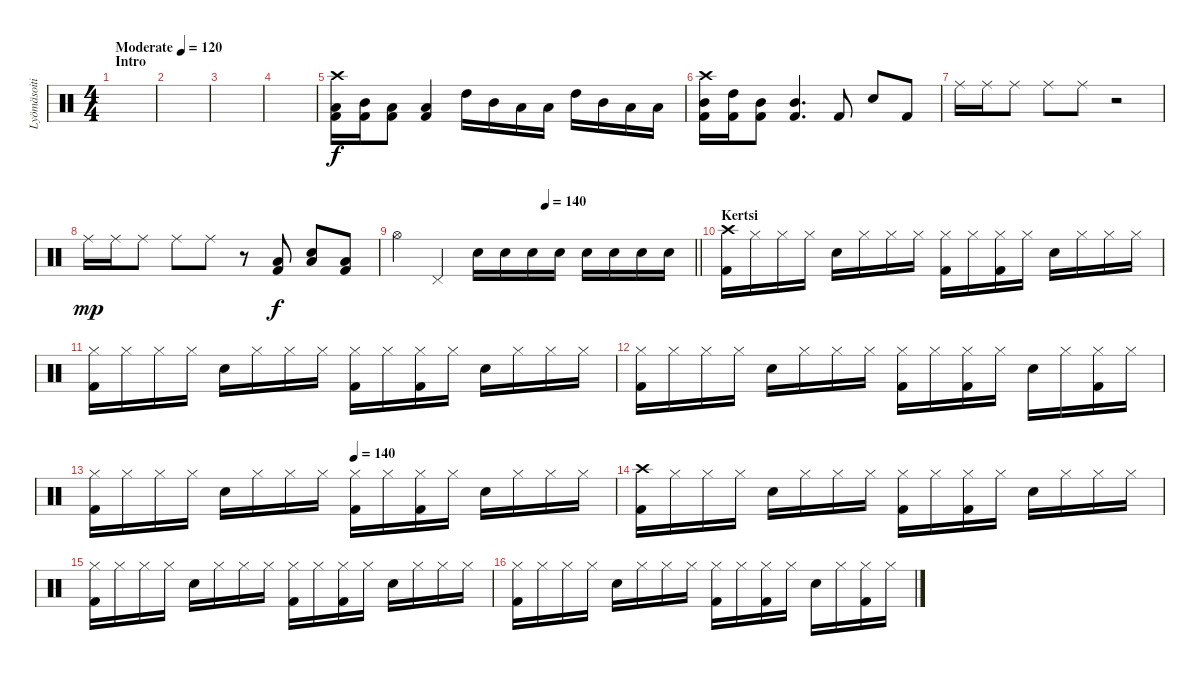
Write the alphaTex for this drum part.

\track ("Lyömäsoitin" "Lyömäsoiti") {instrument percussion}
\staff {score}
\articulation defaults
\ts (4 4)
\section ("" "Intro")
\tempo (120 "Moderate")
\clef neutral
\ks c
|
|
|
|
("Crash high (hit)" "Low Floor Tom (hit)" "Kick (hit) 2").16 ("Mid Tom (hit)" "Kick (hit) 2").16 ("Low Floor Tom (hit)" "Kick (hit) 2").8 ("Low Floor Tom (hit)" "Kick (hit) 2").4 "High Tom (hit)".16 "Mid Tom (hit)".16 "Low Floor Tom (hit)".16 "Low Floor Tom (hit)".16 "High Tom (hit)".16 "Mid Tom (hit)".16 "Low Floor Tom (hit)".16 "Low Floor Tom (hit)".16 |
("Crash high (hit)" "Mid Tom (hit)" "Kick (hit) 2").16 ("High Tom (hit)" "Kick (hit) 2").16 ("Mid Tom (hit)" "Kick (hit) 2").8 ("Mid Tom (hit)" "Kick (hit) 2").4{d} "Kick (hit) 2".8 "Snare (hit) 2".8 "Kick (hit) 2".8 |
"Ride (middle)".16 "Ride (middle)".16 "Ride (middle)".8 "Ride (middle)".8 "Ride (middle)".8 r.2 |
"Ride (middle)".16{dy mp} "Ride (middle)".16 "Ride (middle)".8 "Ride (middle)".8 "Ride (middle)".8 r.8 ("Low Floor Tom (hit)" "Kick (hit) 2").8{dy f} ("Low Floor Tom (hit)" "Snare (hit) 2").8 ("Low Floor Tom (hit)" "Kick (hit) 2").8 |
\tempo (140 0.5)
\barLineRight lightlight "Hi-Hat (open)".4 "Pedal Hi-Hat (hit)".4 "Snare (hit) 2".16 "Snare (hit) 2".16 "Snare (hit) 2".16 "Snare (hit) 2".16 "Snare (hit) 2".16 "Snare (hit) 2".16 "Snare (hit) 2".16 "Snare (hit) 2".16
|
\section ("" "Kertsi")
("Crash high (hit)" "Kick (hit) 2").16 "Hi-Hat (closed)".16 "Hi-Hat (closed)".16 "Hi-Hat (closed)".16 "Snare (hit) 2".16 "Hi-Hat (closed)".16 "Hi-Hat (closed)".16 "Hi-Hat (closed)".16 ("Hi-Hat (closed)" "Kick (hit) 2").16 "Hi-Hat (closed)".16 ("Hi-Hat (closed)" "Kick (hit) 2").16 "Hi-Hat (closed)".16 "Snare (hit) 2".16 "Hi-Hat (closed)".16 "Hi-Hat (closed)".16 "Hi-Hat (closed)".16 |
("Hi-Hat (closed)" "Kick (hit) 2").16 "Hi-Hat (closed)".16 "Hi-Hat (closed)".16 "Hi-Hat (closed)".16 "Snare (hit) 2".16 "Hi-Hat (closed)".16 "Hi-Hat (closed)".16 "Hi-Hat (closed)".16 ("Hi-Hat (closed)" "Kick (hit) 2").16 "Hi-Hat (closed)".16 ("Hi-Hat (closed)" "Kick (hit) 2").16 "Hi-Hat (closed)".16 "Snare (hit) 2".16 "Hi-Hat (closed)".16 "Hi-Hat (closed)".16 "Hi-Hat (closed)".16 |
("Hi-Hat (closed)" "Kick (hit) 2").16 "Hi-Hat (closed)".16 "Hi-Hat (closed)".16 "Hi-Hat (closed)".16 "Snare (hit) 2".16 "Hi-Hat (closed)".16 "Hi-Hat (closed)".16 "Hi-Hat (closed)".16 ("Hi-Hat (closed)" "Kick (hit) 2").16 "Hi-Hat (closed)".16 ("Hi-Hat (closed)" "Kick (hit) 2").16 "Hi-Hat (closed)".16 "Snare (hit) 2".16 "Hi-Hat (closed)".16 ("Hi-Hat (closed)" "Kick (hit) 2").16 "Hi-Hat (closed)".16 |
\tempo (140 0.5)
("Hi-Hat (closed)" "Kick (hit) 2").16 "Hi-Hat (closed)".16 "Hi-Hat (closed)".16 "Hi-Hat (closed)".16 "Snare (hit) 2".16 "Hi-Hat (closed)".16 "Hi-Hat (closed)".16 "Hi-Hat (closed)".16 ("Hi-Hat (closed)" "Kick (hit) 2").16 "Hi-Hat (closed)".16 ("Hi-Hat (closed)" "Kick (hit) 2").16 "Hi-Hat (closed)".16 "Snare (hit) 2".16 "Hi-Hat (closed)".16 "Hi-Hat (closed)".16 "Hi-Hat (closed)".16 |
("Crash high (hit)" "Kick (hit) 2").16 "Hi-Hat (closed)".16 "Hi-Hat (closed)".16 "Hi-Hat (closed)".16 "Snare (hit) 2".16 "Hi-Hat (closed)".16 "Hi-Hat (closed)".16 "Hi-Hat (closed)".16 ("Hi-Hat (closed)" "Kick (hit) 2").16 "Hi-Hat (closed)".16 ("Hi-Hat (closed)" "Kick (hit) 2").16 "Hi-Hat (closed)".16 "Snare (hit) 2".16 "Hi-Hat (closed)".16 "Hi-Hat (closed)".16 "Hi-Hat (closed)".16 |
("Hi-Hat (closed)" "Kick (hit) 2").16 "Hi-Hat (closed)".16 "Hi-Hat (closed)".16 "Hi-Hat (closed)".16 "Snare (hit) 2".16 "Hi-Hat (closed)".16 "Hi-Hat (closed)".16 "Hi-Hat (closed)".16 ("Hi-Hat (closed)" "Kick (hit) 2").16 "Hi-Hat (closed)".16 ("Hi-Hat (closed)" "Kick (hit) 2").16 "Hi-Hat (closed)".16 "Snare (hit) 2".16 "Hi-Hat (closed)".16 "Hi-Hat (closed)".16 "Hi-Hat (closed)".16 |
("Hi-Hat (closed)" "Kick (hit) 2").16 "Hi-Hat (closed)".16 "Hi-Hat (closed)".16 "Hi-Hat (closed)".16 "Snare (hit) 2".16 "Hi-Hat (closed)".16 "Hi-Hat (closed)".16 "Hi-Hat (closed)".16 ("Hi-Hat (closed)" "Kick (hit) 2").16 "Hi-Hat (closed)".16 ("Hi-Hat (closed)" "Kick (hit) 2").16 "Hi-Hat (closed)".16 "Snare (hit) 2".16 "Hi-Hat (closed)".16 ("Hi-Hat (closed)" "Kick (hit) 2").16 "Hi-Hat (closed)".16
